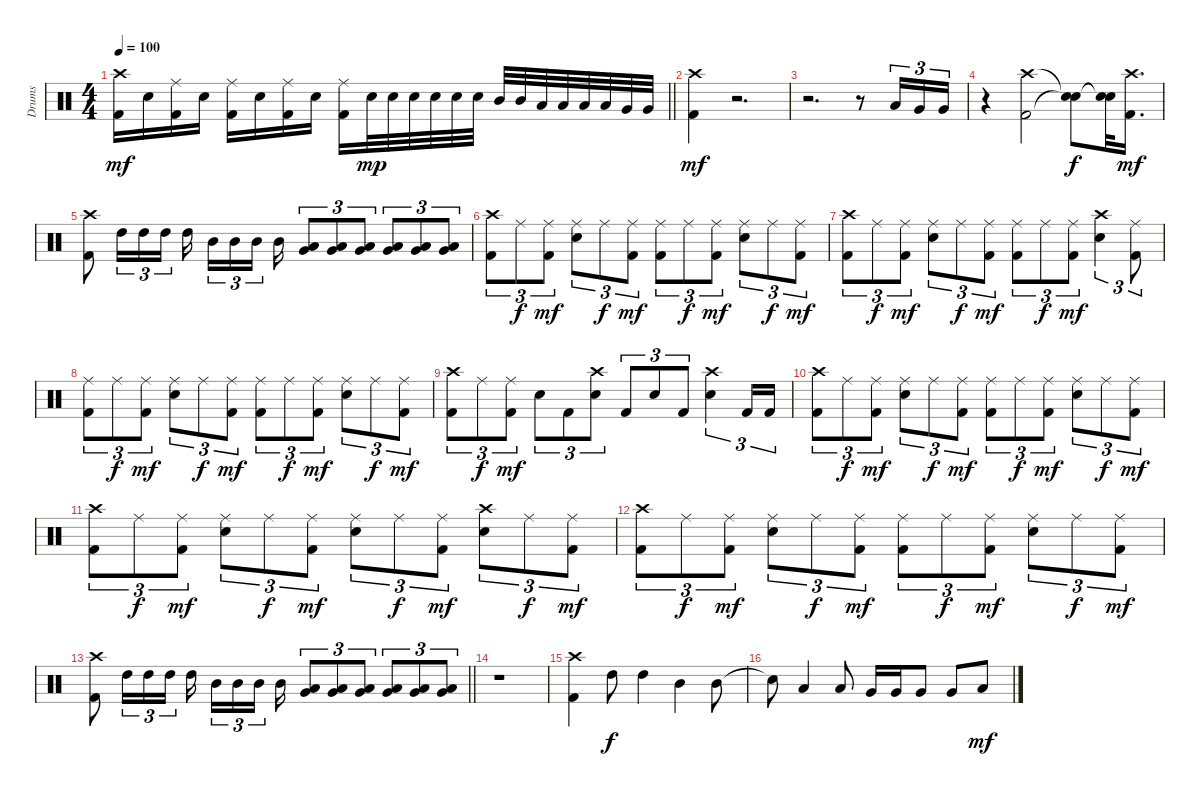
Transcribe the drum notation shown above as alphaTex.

\track ("Drums" "Drums") {instrument percussion}
\staff {score}
\articulation defaults
\ts (4 4)
\tempo 100
\clef neutral
\barLineRight lightlight
\ks c
("Crash high (hit)" "Kick (hit) 2").16{dy mf} "Snare (hit) 2".16 ("Ride (middle)" "Kick (hit) 2").16 "Snare (hit) 2".16 ("Ride (middle)" "Kick (hit) 2").16 "Snare (hit) 2".16 ("Ride (middle)" "Kick (hit) 2").16 "Snare (hit) 2".16 ("Ride (middle)" "Kick (hit) 2").16 "Snare (hit) 2".32{dy mp} "Snare (hit) 2".32 "Snare (hit) 2".32 "Snare (hit) 2".32 "Snare (hit) 2".32 "Snare (hit) 2".32 "Mid Tom (hit)".32 "Mid Tom (hit)".32 "Low Tom (hit)".32 "Low Tom (hit)".32 "Low Tom (hit)".32 "Low Tom (hit)".32 "Very Low Tom (hit)".32 "Very Low Tom (hit)".32 |
("Crash high (hit)" "Kick (hit) 2").4{dy mf} r.2{d} |
r.2{d} r.8 "Low Tom (hit)".16{tu (3 2)} "Very Low Tom (hit)".16{tu (3 2)} "Very Low Tom (hit)".16{tu (3 2)} |
r.4 ("Crash high (hit)" "Kick (hit) 2").2 ("Snare (hit)"{t} "Snare (hit)"{t}).8{dy f} ("Snare (hit)"{t} "Snare (hit)"{t}).32 ("Crash high (hit)" "Kick (hit) 2").16{d dy mf} |
("Crash high (hit)" "Kick (hit) 2").8 "High Tom (hit)".16{tu (3 2)} "High Tom (hit)".16{tu (3 2)} "High Tom (hit)".16{tu (3 2)} "High Tom (hit)".16{beam splitsecondary} "Mid Tom (hit)".16{tu (3 2)} "Mid Tom (hit)".16{tu (3 2)} "Mid Tom (hit)".16{tu (3 2) beam splitsecondary} "Mid Tom (hit)".16 ("Low Floor Tom (hit)" "Very Low Tom (hit)").8{tu (3 2)} ("Low Floor Tom (hit)" "Very Low Tom (hit)").8{tu (3 2)} ("Low Floor Tom (hit)" "Very Low Tom (hit)").8{tu (3 2)} ("Low Floor Tom (hit)" "Very Low Tom (hit)").8{tu (3 2)} ("Low Floor Tom (hit)" "Very Low Tom (hit)").8{tu (3 2)} ("Low Floor Tom (hit)" "Very Low Tom (hit)").8{tu (3 2)} |
("Crash high (hit)" "Kick (hit) 2").8{tu (3 2)} "Ride (middle)".8{tu (3 2) dy f} ("Ride (middle)" "Kick (hit) 2").8{tu (3 2) dy mf} ("Ride (middle)" "Snare (hit) 2").8{tu (3 2)} "Ride (middle)".8{tu (3 2) dy f} ("Ride (middle)" "Kick (hit) 2").8{tu (3 2) dy mf} ("Ride (middle)" "Kick (hit) 2").8{tu (3 2)} "Ride (middle)".8{tu (3 2) dy f} ("Ride (middle)" "Kick (hit) 2").8{tu (3 2) dy mf} ("Ride (middle)" "Snare (hit) 2").8{tu (3 2)} "Ride (middle)".8{tu (3 2) dy f} ("Ride (middle)" "Kick (hit) 2").8{tu (3 2) dy mf} |
("Crash high (hit)" "Kick (hit) 2").8{tu (3 2)} "Ride (middle)".8{tu (3 2) dy f} ("Ride (middle)" "Kick (hit) 2").8{tu (3 2) dy mf} ("Ride (middle)" "Snare (hit) 2").8{tu (3 2)} "Ride (middle)".8{tu (3 2) dy f} ("Ride (middle)" "Kick (hit) 2").8{tu (3 2) dy mf} ("Ride (middle)" "Kick (hit) 2").8{tu (3 2)} "Ride (middle)".8{tu (3 2) dy f} ("Ride (middle)" "Kick (hit) 2").8{tu (3 2) dy mf} ("Crash high (hit)" "Snare (hit) 2").4{tu (3 2)} ("Ride (middle)" "Kick (hit) 2").8{tu (3 2)} |
("Ride (middle)" "Kick (hit) 2").8{tu (3 2)} "Ride (middle)".8{tu (3 2) dy f} ("Ride (middle)" "Kick (hit) 2").8{tu (3 2) dy mf} ("Ride (middle)" "Snare (hit) 2").8{tu (3 2)} "Ride (middle)".8{tu (3 2) dy f} ("Ride (middle)" "Kick (hit) 2").8{tu (3 2) dy mf} ("Ride (middle)" "Kick (hit) 2").8{tu (3 2)} "Ride (middle)".8{tu (3 2) dy f} ("Ride (middle)" "Kick (hit) 2").8{tu (3 2) dy mf} ("Ride (middle)" "Snare (hit) 2").8{tu (3 2)} "Ride (middle)".8{tu (3 2) dy f} ("Ride (middle)" "Kick (hit) 2").8{tu (3 2) dy mf} |
("Crash high (hit)" "Kick (hit) 2").8{tu (3 2)} "Ride (middle)".8{tu (3 2) dy f} ("Ride (middle)" "Kick (hit) 2").8{tu (3 2) dy mf} "Snare (hit) 2".8{tu (3 2)} "Kick (hit) 2".8{tu (3 2)} ("Crash high (hit)" "Snare (hit) 2").8{tu (3 2)} "Kick (hit) 2".8{tu (3 2)} "Snare (hit) 2".8{tu (3 2)} "Kick (hit) 2".8{tu (3 2)} ("Crash high (hit)" "Snare (hit) 2").4{tu (3 2)} "Kick (hit) 2".16{tu (3 2)} "Kick (hit) 2".16{tu (3 2)} |
("Crash high (hit)" "Kick (hit) 2").8{tu (3 2)} "Ride (middle)".8{tu (3 2) dy f} ("Ride (middle)" "Kick (hit) 2").8{tu (3 2) dy mf} ("Ride (middle)" "Snare (hit) 2").8{tu (3 2)} "Ride (middle)".8{tu (3 2) dy f} ("Ride (middle)" "Kick (hit) 2").8{tu (3 2) dy mf} ("Ride (middle)" "Kick (hit) 2").8{tu (3 2)} "Ride (middle)".8{tu (3 2) dy f} ("Ride (middle)" "Kick (hit) 2").8{tu (3 2) dy mf} ("Ride (middle)" "Snare (hit) 2").8{tu (3 2)} "Ride (middle)".8{tu (3 2) dy f} ("Ride (middle)" "Kick (hit) 2").8{tu (3 2) dy mf} |
("Crash high (hit)" "Kick (hit) 2").8{tu (3 2)} "Ride (middle)".8{tu (3 2) dy f} ("Ride (middle)" "Kick (hit) 2").8{tu (3 2) dy mf} ("Ride (middle)" "Snare (hit) 2").8{tu (3 2)} "Ride (middle)".8{tu (3 2) dy f} ("Ride (middle)" "Kick (hit) 2").8{tu (3 2) dy mf} ("Ride (middle)" "Snare (hit) 2").8{tu (3 2)} "Ride (middle)".8{tu (3 2) dy f} ("Ride (middle)" "Kick (hit) 2").8{tu (3 2) dy mf} ("Crash high (hit)" "Snare (hit) 2").8{tu (3 2)} "Ride (middle)".8{tu (3 2) dy f} ("Ride (middle)" "Kick (hit) 2").8{tu (3 2) dy mf} |
("Crash high (hit)" "Kick (hit) 2").8{tu (3 2)} "Ride (middle)".8{tu (3 2) dy f} ("Ride (middle)" "Kick (hit) 2").8{tu (3 2) dy mf} ("Ride (middle)" "Snare (hit) 2").8{tu (3 2)} "Ride (middle)".8{tu (3 2) dy f} ("Ride (middle)" "Kick (hit) 2").8{tu (3 2) dy mf} ("Ride (middle)" "Kick (hit) 2").8{tu (3 2)} "Ride (middle)".8{tu (3 2) dy f} ("Ride (middle)" "Kick (hit) 2").8{tu (3 2) dy mf} ("Ride (middle)" "Snare (hit) 2").8{tu (3 2)} "Ride (middle)".8{tu (3 2) dy f} ("Ride (middle)" "Kick (hit) 2").8{tu (3 2) dy mf} |
\barLineRight lightlight
("Crash high (hit)" "Kick (hit) 2").8 "High Tom (hit)".16{tu (3 2)} "High Tom (hit)".16{tu (3 2)} "High Tom (hit)".16{tu (3 2)} "High Tom (hit)".16{beam splitsecondary} "Mid Tom (hit)".16{tu (3 2)} "Mid Tom (hit)".16{tu (3 2)} "Mid Tom (hit)".16{tu (3 2) beam splitsecondary} "Mid Tom (hit)".16 ("Low Floor Tom (hit)" "Very Low Tom (hit)").8{tu (3 2)} ("Low Floor Tom (hit)" "Very Low Tom (hit)").8{tu (3 2)} ("Low Floor Tom (hit)" "Very Low Tom (hit)").8{tu (3 2)} ("Low Floor Tom (hit)" "Very Low Tom (hit)").8{tu (3 2)} ("Low Floor Tom (hit)" "Very Low Tom (hit)").8{tu (3 2)} ("Low Floor Tom (hit)" "Very Low Tom (hit)").8{tu (3 2)} |
r.1 |
("Crash high (hit)" "Kick (hit) 2").4 "High Tom (hit)".8{dy f} "High Tom (hit)".4 "Mid Tom (hit)".4 "Mid Tom (hit)".8 |
"Snare (hit)"{t}.8 "Low Tom (hit)".4 "Low Tom (hit)".8 "Very Low Tom (hit)".16 "Very Low Tom (hit)".16 "Very Low Tom (hit)".8 "Very Low Tom (hit)".8 "Low Floor Tom (hit)".8{dy mf}
